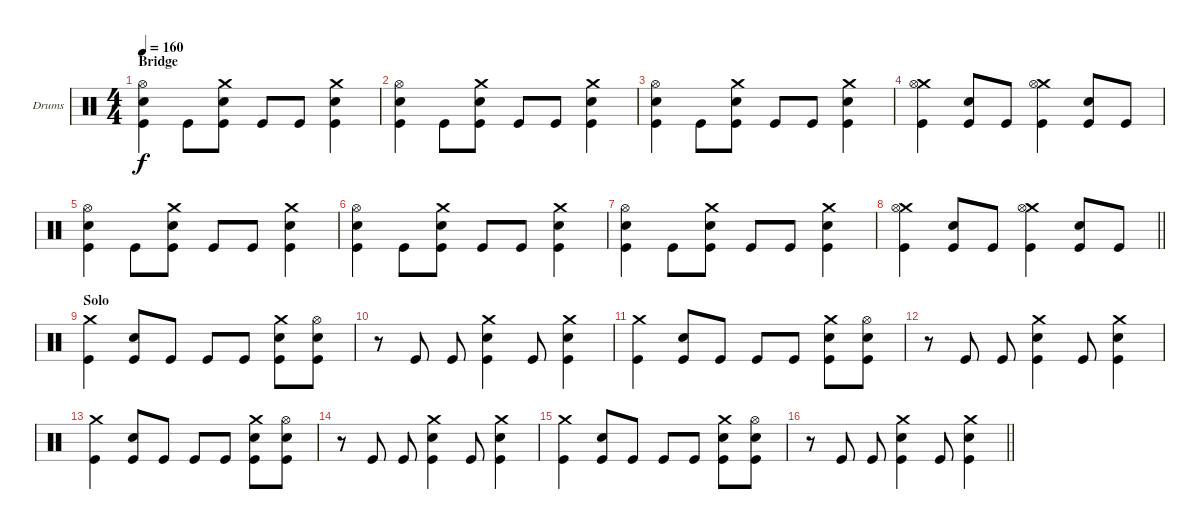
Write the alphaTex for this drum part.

\bracketExtendMode groupsimilarinstruments
\firstSystemTrackNameOrientation horizontal
\otherSystemsTrackNameOrientation horizontal
\track ("Drum" "Drums") {instrument percussion}
\staff {score}
\articulation defaults
\ts (4 4)
\section ("" "Bridge")
\tempo 160
\clef neutral
\ks c
("Hi-Hat (open)" "Snare (hit) 2" "Kick (hit)").4{dy f} "Kick (hit)".8 ("Crash medium (hit)" "Snare (hit) 2" "Kick (hit)").8 "Kick (hit)".8 "Kick (hit)".8 ("Crash medium (hit)" "Snare (hit) 2" "Kick (hit)").4 |
("Hi-Hat (open)" "Snare (hit) 2" "Kick (hit)").4 "Kick (hit)".8 ("Crash medium (hit)" "Snare (hit) 2" "Kick (hit)").8 "Kick (hit)".8 "Kick (hit)".8 ("Crash medium (hit)" "Snare (hit) 2" "Kick (hit)").4 |
("Hi-Hat (open)" "Snare (hit) 2" "Kick (hit)").4 "Kick (hit)".8 ("Crash medium (hit)" "Snare (hit) 2" "Kick (hit)").8 "Kick (hit)".8 "Kick (hit)".8 ("Crash medium (hit)" "Snare (hit) 2" "Kick (hit)").4 |
("Crash medium (hit)" "Hi-Hat (open)" "Kick (hit)").4 ("Snare (hit) 2" "Kick (hit)").8 "Kick (hit)".8 ("Crash medium (hit)" "Hi-Hat (open)" "Kick (hit)").4 ("Snare (hit) 2" "Kick (hit)").8 "Kick (hit)".8 |
("Hi-Hat (open)" "Snare (hit) 2" "Kick (hit)").4 "Kick (hit)".8 ("Crash medium (hit)" "Snare (hit) 2" "Kick (hit)").8 "Kick (hit)".8 "Kick (hit)".8 ("Crash medium (hit)" "Snare (hit) 2" "Kick (hit)").4 |
("Hi-Hat (open)" "Snare (hit) 2" "Kick (hit)").4 "Kick (hit)".8 ("Crash medium (hit)" "Snare (hit) 2" "Kick (hit)").8 "Kick (hit)".8 "Kick (hit)".8 ("Crash medium (hit)" "Snare (hit) 2" "Kick (hit)").4 |
("Hi-Hat (open)" "Snare (hit) 2" "Kick (hit)").4 "Kick (hit)".8 ("Crash medium (hit)" "Snare (hit) 2" "Kick (hit)").8 "Kick (hit)".8 "Kick (hit)".8 ("Crash medium (hit)" "Snare (hit) 2" "Kick (hit)").4 |
\barLineRight lightlight
("Crash medium (hit)" "Hi-Hat (open)" "Kick (hit)").4 ("Snare (hit) 2" "Kick (hit)").8 "Kick (hit)".8 ("Crash medium (hit)" "Hi-Hat (open)" "Kick (hit)").4 ("Snare (hit) 2" "Kick (hit)").8 "Kick (hit)".8 |
\section ("" "Solo")
("Crash medium (hit)" "Kick (hit)").4 ("Snare (hit) 2" "Kick (hit)").8 "Kick (hit)".8 "Kick (hit)".8 "Kick (hit)".8 ("Crash medium (hit)" "Snare (hit) 2" "Kick (hit)").8 ("Hi-Hat (open)" "Snare (hit) 2" "Kick (hit)").8 |
r.8 "Kick (hit)".8 "Kick (hit)".8 ("Crash medium (hit)" "Snare (hit) 2" "Kick (hit)").4 "Kick (hit)".8 ("Crash medium (hit)" "Snare (hit) 2" "Kick (hit)").4 |
("Crash medium (hit)" "Kick (hit)").4 ("Snare (hit) 2" "Kick (hit)").8 "Kick (hit)".8 "Kick (hit)".8 "Kick (hit)".8 ("Crash medium (hit)" "Snare (hit) 2" "Kick (hit)").8 ("Hi-Hat (open)" "Snare (hit) 2" "Kick (hit)").8 |
r.8 "Kick (hit)".8 "Kick (hit)".8 ("Crash medium (hit)" "Snare (hit) 2" "Kick (hit)").4 "Kick (hit)".8 ("Crash medium (hit)" "Snare (hit) 2" "Kick (hit)").4 |
("Crash medium (hit)" "Kick (hit)").4 ("Snare (hit) 2" "Kick (hit)").8 "Kick (hit)".8 "Kick (hit)".8 "Kick (hit)".8 ("Crash medium (hit)" "Snare (hit) 2" "Kick (hit)").8 ("Hi-Hat (open)" "Snare (hit) 2" "Kick (hit)").8 |
r.8 "Kick (hit)".8 "Kick (hit)".8 ("Crash medium (hit)" "Snare (hit) 2" "Kick (hit)").4 "Kick (hit)".8 ("Crash medium (hit)" "Snare (hit) 2" "Kick (hit)").4 |
("Crash medium (hit)" "Kick (hit)").4 ("Snare (hit) 2" "Kick (hit)").8 "Kick (hit)".8 "Kick (hit)".8 "Kick (hit)".8 ("Crash medium (hit)" "Snare (hit) 2" "Kick (hit)").8 ("Hi-Hat (open)" "Snare (hit) 2" "Kick (hit)").8 |
\barLineRight lightlight
r.8 "Kick (hit)".8 "Kick (hit)".8 ("Crash medium (hit)" "Snare (hit) 2" "Kick (hit)").4 "Kick (hit)".8 ("Crash medium (hit)" "Snare (hit) 2" "Kick (hit)").4
